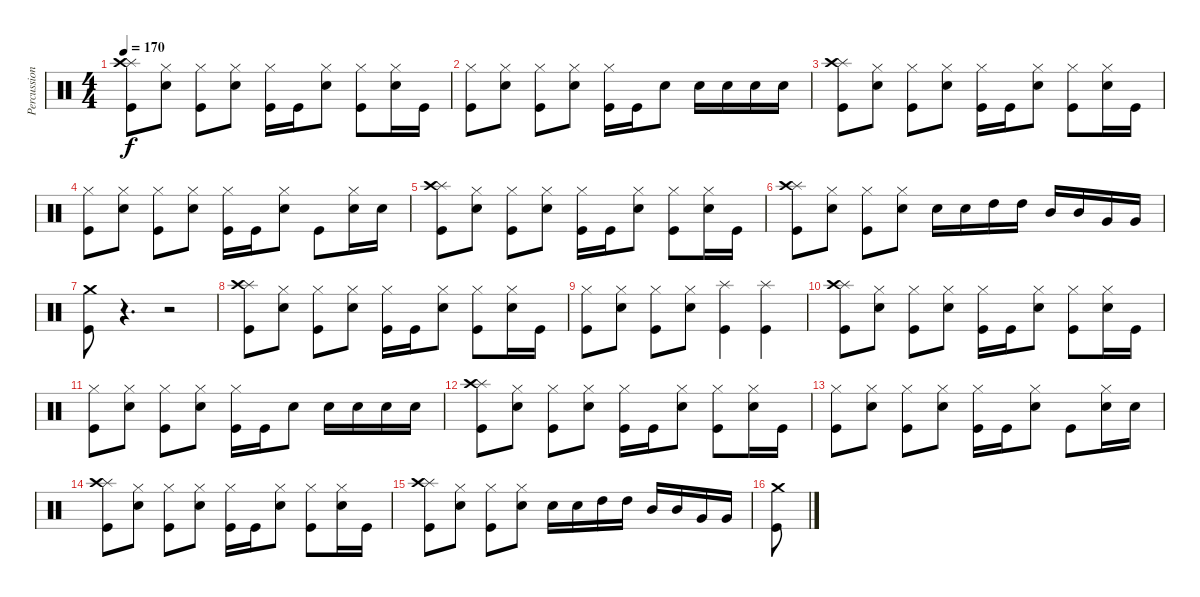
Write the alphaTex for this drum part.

\track ("Percussion" "Percussion") {instrument percussion}
\staff {score}
\articulation defaults
\ts (4 4)
\tempo 170
\clef neutral
\ks c
("Splash (hit)" "Crash high (hit)" "Kick (hit)").8{dy f} ("Hi-Hat (closed)" "Electric Snare (hit)").8 ("Hi-Hat (closed)" "Kick (hit)").8 ("Hi-Hat (closed)" "Electric Snare (hit)").8 ("Hi-Hat (closed)" "Kick (hit)").16 "Kick (hit)".16 ("Hi-Hat (closed)" "Electric Snare (hit)").8 ("Hi-Hat (closed)" "Kick (hit)").8 ("Hi-Hat (closed)" "Electric Snare (hit)").16 "Kick (hit)".16 |
("Hi-Hat (closed)" "Kick (hit)").8 ("Hi-Hat (closed)" "Electric Snare (hit)").8 ("Hi-Hat (closed)" "Kick (hit)").8 ("Hi-Hat (closed)" "Electric Snare (hit)").8 ("Hi-Hat (closed)" "Kick (hit)").16 "Kick (hit)".16 "Electric Snare (hit)".8 "Electric Snare (hit)".16 "Electric Snare (hit)".16 "Electric Snare (hit)".16 "Electric Snare (hit)".16 |
("Splash (hit)" "Crash high (hit)" "Kick (hit)").8 ("Hi-Hat (closed)" "Electric Snare (hit)").8 ("Hi-Hat (closed)" "Kick (hit)").8 ("Hi-Hat (closed)" "Electric Snare (hit)").8 ("Hi-Hat (closed)" "Kick (hit)").16 "Kick (hit)".16 ("Hi-Hat (closed)" "Electric Snare (hit)").8 ("Hi-Hat (closed)" "Kick (hit)").8 ("Hi-Hat (closed)" "Electric Snare (hit)").16 "Kick (hit)".16 |
("Hi-Hat (closed)" "Kick (hit)").8 ("Hi-Hat (closed)" "Electric Snare (hit)").8 ("Hi-Hat (closed)" "Kick (hit)").8 ("Hi-Hat (closed)" "Electric Snare (hit)").8 ("Hi-Hat (closed)" "Kick (hit)").16 "Kick (hit)".16 ("Hi-Hat (closed)" "Electric Snare (hit)").8 "Kick (hit)".8 ("Hi-Hat (closed)" "Electric Snare (hit)").16 "Electric Snare (hit)".16 |
("Splash (hit)" "Crash high (hit)" "Kick (hit)").8 ("Hi-Hat (closed)" "Electric Snare (hit)").8 ("Hi-Hat (closed)" "Kick (hit)").8 ("Hi-Hat (closed)" "Electric Snare (hit)").8 ("Hi-Hat (closed)" "Kick (hit)").16 "Kick (hit)".16 ("Hi-Hat (closed)" "Electric Snare (hit)").8 ("Hi-Hat (closed)" "Kick (hit)").8 ("Hi-Hat (closed)" "Electric Snare (hit)").16 "Kick (hit)".16 |
("Splash (hit)" "Crash high (hit)" "Kick (hit)").8 ("Hi-Hat (closed)" "Electric Snare (hit)").8 ("Hi-Hat (closed)" "Kick (hit)").8 ("Hi-Hat (closed)" "Electric Snare (hit)").8 "Electric Snare (hit)".16 "Electric Snare (hit)".16 "High Tom (hit)".16 "High Tom (hit)".16 "Mid Tom (hit)".16 "Mid Tom (hit)".16 "Very Low Tom (hit)".16 "Very Low Tom (hit)".16 |
("Crash medium (hit)" "Kick (hit)").8 r.4{d} r.2 |
("Splash (hit)" "Crash high (hit)" "Kick (hit)").8 ("Hi-Hat (closed)" "Electric Snare (hit)").8 ("Hi-Hat (closed)" "Kick (hit)").8 ("Hi-Hat (closed)" "Electric Snare (hit)").8 ("Hi-Hat (closed)" "Kick (hit)").16 "Kick (hit)".16 ("Hi-Hat (closed)" "Electric Snare (hit)").8 ("Hi-Hat (closed)" "Kick (hit)").8 ("Hi-Hat (closed)" "Electric Snare (hit)").16 "Kick (hit)".16 |
("Hi-Hat (closed)" "Kick (hit)").8 ("Hi-Hat (closed)" "Electric Snare (hit)").8 ("Hi-Hat (closed)" "Kick (hit)").8 ("Hi-Hat (closed)" "Electric Snare (hit)").8 ("Splash (hit)" "Kick (hit)").4 ("Splash (hit)" "Kick (hit)").4 |
("Splash (hit)" "Crash high (hit)" "Kick (hit)").8 ("Hi-Hat (closed)" "Electric Snare (hit)").8 ("Hi-Hat (closed)" "Kick (hit)").8 ("Hi-Hat (closed)" "Electric Snare (hit)").8 ("Hi-Hat (closed)" "Kick (hit)").16 "Kick (hit)".16 ("Hi-Hat (closed)" "Electric Snare (hit)").8 ("Hi-Hat (closed)" "Kick (hit)").8 ("Hi-Hat (closed)" "Electric Snare (hit)").16 "Kick (hit)".16 |
("Hi-Hat (closed)" "Kick (hit)").8 ("Hi-Hat (closed)" "Electric Snare (hit)").8 ("Hi-Hat (closed)" "Kick (hit)").8 ("Hi-Hat (closed)" "Electric Snare (hit)").8 ("Hi-Hat (closed)" "Kick (hit)").16 "Kick (hit)".16 "Electric Snare (hit)".8 "Electric Snare (hit)".16 "Electric Snare (hit)".16 "Electric Snare (hit)".16 "Electric Snare (hit)".16 |
("Splash (hit)" "Crash high (hit)" "Kick (hit)").8 ("Hi-Hat (closed)" "Electric Snare (hit)").8 ("Hi-Hat (closed)" "Kick (hit)").8 ("Hi-Hat (closed)" "Electric Snare (hit)").8 ("Hi-Hat (closed)" "Kick (hit)").16 "Kick (hit)".16 ("Hi-Hat (closed)" "Electric Snare (hit)").8 ("Hi-Hat (closed)" "Kick (hit)").8 ("Hi-Hat (closed)" "Electric Snare (hit)").16 "Kick (hit)".16 |
("Hi-Hat (closed)" "Kick (hit)").8 ("Hi-Hat (closed)" "Electric Snare (hit)").8 ("Hi-Hat (closed)" "Kick (hit)").8 ("Hi-Hat (closed)" "Electric Snare (hit)").8 ("Hi-Hat (closed)" "Kick (hit)").16 "Kick (hit)".16 ("Hi-Hat (closed)" "Electric Snare (hit)").8 "Kick (hit)".8 ("Hi-Hat (closed)" "Electric Snare (hit)").16 "Electric Snare (hit)".16 |
("Splash (hit)" "Crash high (hit)" "Kick (hit)").8 ("Hi-Hat (closed)" "Electric Snare (hit)").8 ("Hi-Hat (closed)" "Kick (hit)").8 ("Hi-Hat (closed)" "Electric Snare (hit)").8 ("Hi-Hat (closed)" "Kick (hit)").16 "Kick (hit)".16 ("Hi-Hat (closed)" "Electric Snare (hit)").8 ("Hi-Hat (closed)" "Kick (hit)").8 ("Hi-Hat (closed)" "Electric Snare (hit)").16 "Kick (hit)".16 |
("Splash (hit)" "Crash high (hit)" "Kick (hit)").8 ("Hi-Hat (closed)" "Electric Snare (hit)").8 ("Hi-Hat (closed)" "Kick (hit)").8 ("Hi-Hat (closed)" "Electric Snare (hit)").8 "Electric Snare (hit)".16 "Electric Snare (hit)".16 "High Tom (hit)".16 "High Tom (hit)".16 "Mid Tom (hit)".16 "Mid Tom (hit)".16 "Very Low Tom (hit)".16 "Very Low Tom (hit)".16 |
("Crash medium (hit)" "Kick (hit)").8
